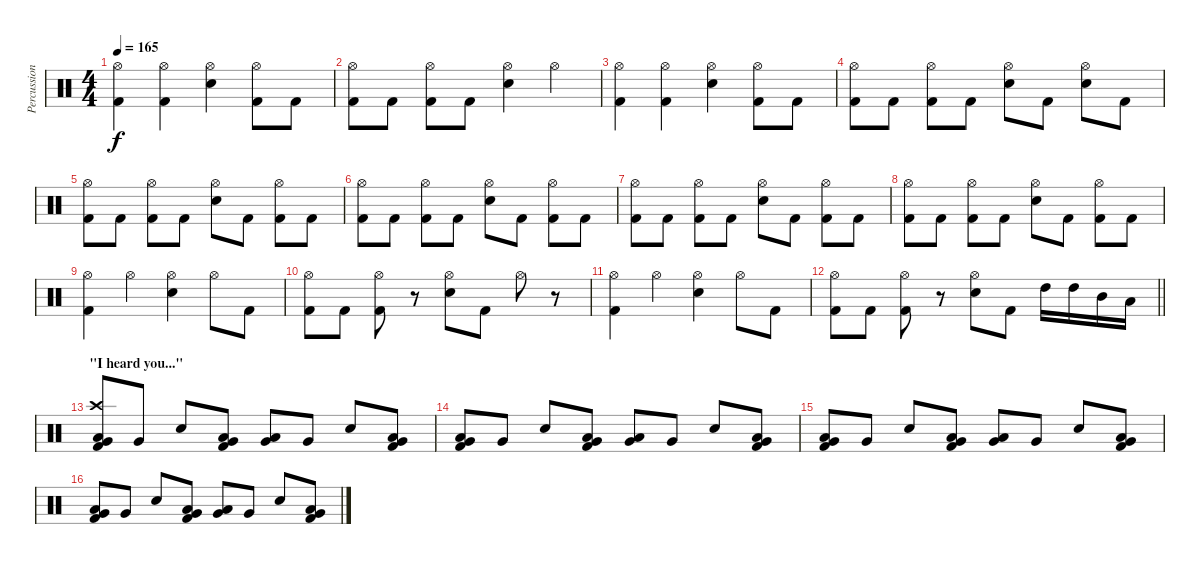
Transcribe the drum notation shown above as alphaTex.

\track ("Percussion" "Percussion") {instrument percussion}
\staff {score}
\articulation defaults
\ts (4 4)
\tempo 165
\clef neutral
\ks c
("Hi-Hat (open)" "Kick (hit) 2").4{dy f} ("Hi-Hat (open)" "Kick (hit) 2").4 ("Hi-Hat (open)" "Electric Snare (hit)").4 ("Hi-Hat (open)" "Kick (hit) 2").8 "Kick (hit) 2".8 |
("Hi-Hat (open)" "Kick (hit) 2").8 "Kick (hit) 2".8 ("Hi-Hat (open)" "Kick (hit) 2").8 "Kick (hit) 2".8 ("Hi-Hat (open)" "Electric Snare (hit)").4 "Hi-Hat (open)".4 |
("Hi-Hat (open)" "Kick (hit) 2").4 ("Hi-Hat (open)" "Kick (hit) 2").4 ("Hi-Hat (open)" "Electric Snare (hit)").4 ("Hi-Hat (open)" "Kick (hit) 2").8 "Kick (hit) 2".8 |
("Hi-Hat (open)" "Kick (hit) 2").8 "Kick (hit) 2".8 ("Hi-Hat (open)" "Kick (hit) 2").8 "Kick (hit) 2".8 ("Hi-Hat (open)" "Electric Snare (hit)").8 "Kick (hit) 2".8 ("Hi-Hat (open)" "Electric Snare (hit)").8 "Kick (hit) 2".8 |
("Hi-Hat (open)" "Kick (hit) 2").8 "Kick (hit) 2".8 ("Hi-Hat (open)" "Kick (hit) 2").8 "Kick (hit) 2".8 ("Hi-Hat (open)" "Electric Snare (hit)").8 "Kick (hit) 2".8 ("Hi-Hat (open)" "Kick (hit) 2").8 "Kick (hit) 2".8 |
("Hi-Hat (open)" "Kick (hit) 2").8 "Kick (hit) 2".8 ("Hi-Hat (open)" "Kick (hit) 2").8 "Kick (hit) 2".8 ("Hi-Hat (open)" "Electric Snare (hit)").8 "Kick (hit) 2".8 ("Hi-Hat (open)" "Kick (hit) 2").8 "Kick (hit) 2".8 |
("Hi-Hat (open)" "Kick (hit) 2").8 "Kick (hit) 2".8 ("Hi-Hat (open)" "Kick (hit) 2").8 "Kick (hit) 2".8 ("Hi-Hat (open)" "Electric Snare (hit)").8 "Kick (hit) 2".8 ("Hi-Hat (open)" "Kick (hit) 2").8 "Kick (hit) 2".8 |
("Hi-Hat (open)" "Kick (hit) 2").8 "Kick (hit) 2".8 ("Hi-Hat (open)" "Kick (hit) 2").8 "Kick (hit) 2".8 ("Hi-Hat (open)" "Electric Snare (hit)").8 "Kick (hit) 2".8 ("Hi-Hat (open)" "Kick (hit) 2").8 "Kick (hit) 2".8 |
("Hi-Hat (open)" "Kick (hit) 2").4 "Hi-Hat (open)".4 ("Hi-Hat (open)" "Electric Snare (hit)").4 "Hi-Hat (open)".8 "Kick (hit) 2".8 |
("Hi-Hat (open)" "Kick (hit) 2").8 "Kick (hit) 2".8 ("Hi-Hat (open)" "Kick (hit) 2").8 r.8 ("Hi-Hat (open)" "Electric Snare (hit)").8 "Kick (hit) 2".8 "Hi-Hat (open)".8 r.8 |
("Hi-Hat (open)" "Kick (hit) 2").4 "Hi-Hat (open)".4 ("Hi-Hat (open)" "Electric Snare (hit)").4 "Hi-Hat (open)".8 "Kick (hit) 2".8 |
\barLineRight lightlight
("Hi-Hat (open)" "Kick (hit) 2").8 "Kick (hit) 2".8 ("Hi-Hat (open)" "Kick (hit) 2").8 r.8 ("Hi-Hat (open)" "Electric Snare (hit)").8 "Kick (hit) 2".8 "High Tom (hit)".16 "High Tom (hit)".16 "Mid Tom (hit)".16 "Low Tom (hit)".16 |
\section ("" "\"I heard you...\"")
("Crash high (hit)" "Low Tom (hit)" "Very Low Tom (hit)" "Kick (hit) 2").8 "Very Low Tom (hit)".8 "Electric Snare (hit)".8 ("Low Tom (hit)" "Very Low Tom (hit)" "Kick (hit) 2").8 ("Low Tom (hit)" "Very Low Tom (hit)").8 "Very Low Tom (hit)".8 "Electric Snare (hit)".8 ("Low Tom (hit)" "Very Low Tom (hit)" "Kick (hit) 2").8 |
("Low Tom (hit)" "Very Low Tom (hit)" "Kick (hit) 2").8 "Very Low Tom (hit)".8 "Electric Snare (hit)".8 ("Low Tom (hit)" "Very Low Tom (hit)" "Kick (hit) 2").8 ("Low Tom (hit)" "Very Low Tom (hit)").8 "Very Low Tom (hit)".8 "Electric Snare (hit)".8 ("Low Tom (hit)" "Very Low Tom (hit)" "Kick (hit) 2").8 |
("Low Tom (hit)" "Very Low Tom (hit)" "Kick (hit) 2").8 "Very Low Tom (hit)".8 "Electric Snare (hit)".8 ("Low Tom (hit)" "Very Low Tom (hit)" "Kick (hit) 2").8 ("Low Tom (hit)" "Very Low Tom (hit)").8 "Very Low Tom (hit)".8 "Electric Snare (hit)".8 ("Low Tom (hit)" "Very Low Tom (hit)" "Kick (hit) 2").8 |
("Low Tom (hit)" "Very Low Tom (hit)" "Kick (hit) 2").8 "Very Low Tom (hit)".8 "Electric Snare (hit)".8 ("Low Tom (hit)" "Very Low Tom (hit)" "Kick (hit) 2").8 ("Low Tom (hit)" "Very Low Tom (hit)").8 "Very Low Tom (hit)".8 "Electric Snare (hit)".8 ("Low Tom (hit)" "Very Low Tom (hit)" "Kick (hit) 2").8
